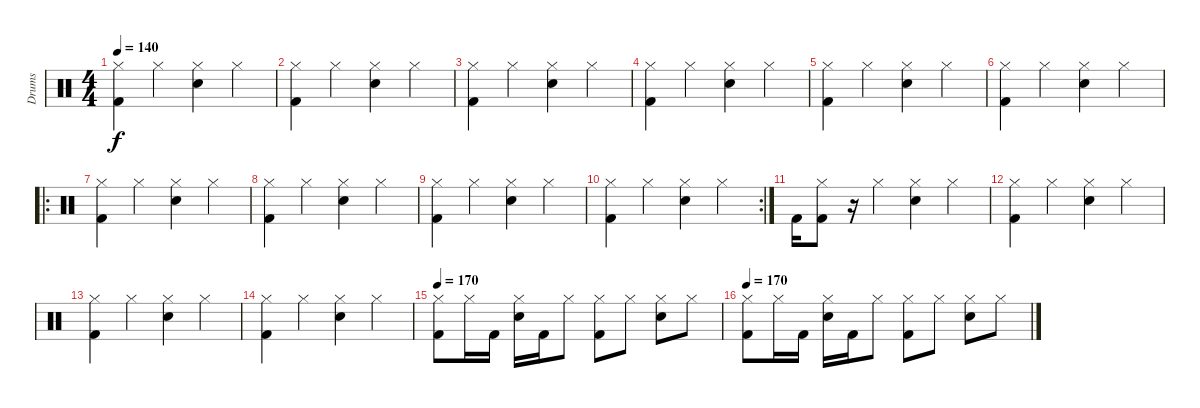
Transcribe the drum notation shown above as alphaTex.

\track ("Drums" "Drums") {instrument percussion}
\staff {score}
\articulation defaults
\ts (4 4)
\tempo 140
\clef neutral
\ks c
("Kick (hit) 2" "Hi-Hat (closed)").4{dy f} "Hi-Hat (closed)".4 ("Snare (hit) 2" "Hi-Hat (closed)").4 "Hi-Hat (closed)".4 |
("Kick (hit) 2" "Hi-Hat (closed)").4 "Hi-Hat (closed)".4 ("Snare (hit) 2" "Hi-Hat (closed)").4 "Hi-Hat (closed)".4 |
("Kick (hit) 2" "Hi-Hat (closed)").4 "Hi-Hat (closed)".4 ("Snare (hit) 2" "Hi-Hat (closed)").4 "Hi-Hat (closed)".4 |
("Kick (hit) 2" "Hi-Hat (closed)").4 "Hi-Hat (closed)".4 ("Snare (hit) 2" "Hi-Hat (closed)").4 "Hi-Hat (closed)".4 |
("Kick (hit) 2" "Hi-Hat (closed)").4 "Hi-Hat (closed)".4 ("Snare (hit) 2" "Hi-Hat (closed)").4 "Hi-Hat (closed)".4 |
("Kick (hit) 2" "Hi-Hat (closed)").4 "Hi-Hat (closed)".4 ("Snare (hit) 2" "Hi-Hat (closed)").4 "Hi-Hat (closed)".4 |
\ro
("Kick (hit) 2" "Hi-Hat (closed)").4 "Hi-Hat (closed)".4 ("Snare (hit) 2" "Hi-Hat (closed)").4 "Hi-Hat (closed)".4 |
("Kick (hit) 2" "Hi-Hat (closed)").4 "Hi-Hat (closed)".4 ("Snare (hit) 2" "Hi-Hat (closed)").4 "Hi-Hat (closed)".4 |
("Kick (hit) 2" "Hi-Hat (closed)").4 "Hi-Hat (closed)".4 ("Snare (hit) 2" "Hi-Hat (closed)").4 "Hi-Hat (closed)".4 |
\rc 2
("Kick (hit) 2" "Hi-Hat (closed)").4 "Hi-Hat (closed)".4 ("Snare (hit) 2" "Hi-Hat (closed)").4 "Hi-Hat (closed)".4 |
"Kick (hit) 2".16 ("Kick (hit) 2" "Hi-Hat (closed)").8 r.16 "Hi-Hat (closed)".4 ("Snare (hit) 2" "Hi-Hat (closed)").4 "Hi-Hat (closed)".4 |
("Kick (hit) 2" "Hi-Hat (closed)").4 "Hi-Hat (closed)".4 ("Snare (hit) 2" "Hi-Hat (closed)").4 "Hi-Hat (closed)".4 |
("Kick (hit) 2" "Hi-Hat (closed)").4 "Hi-Hat (closed)".4 ("Snare (hit) 2" "Hi-Hat (closed)").4 "Hi-Hat (closed)".4 |
("Kick (hit) 2" "Hi-Hat (closed)").4 "Hi-Hat (closed)".4 ("Snare (hit) 2" "Hi-Hat (closed)").4 "Hi-Hat (closed)".4 |
\tempo 170
("Kick (hit) 2" "Hi-Hat (closed)").8 "Hi-Hat (closed)".16 "Kick (hit) 2".16 ("Snare (hit) 2" "Hi-Hat (closed)").16 "Kick (hit) 2".16 "Hi-Hat (closed)".8 ("Kick (hit) 2" "Hi-Hat (closed)").8 "Hi-Hat (closed)".8 ("Snare (hit) 2" "Hi-Hat (closed)").8 "Hi-Hat (closed)".8 |
\tempo 170
("Kick (hit) 2" "Hi-Hat (closed)").8 "Hi-Hat (closed)".16 "Kick (hit) 2".16 ("Snare (hit) 2" "Hi-Hat (closed)").16 "Kick (hit) 2".16 "Hi-Hat (closed)".8 ("Kick (hit) 2" "Hi-Hat (closed)").8 "Hi-Hat (closed)".8 ("Snare (hit) 2" "Hi-Hat (closed)").8 "Hi-Hat (closed)".8
